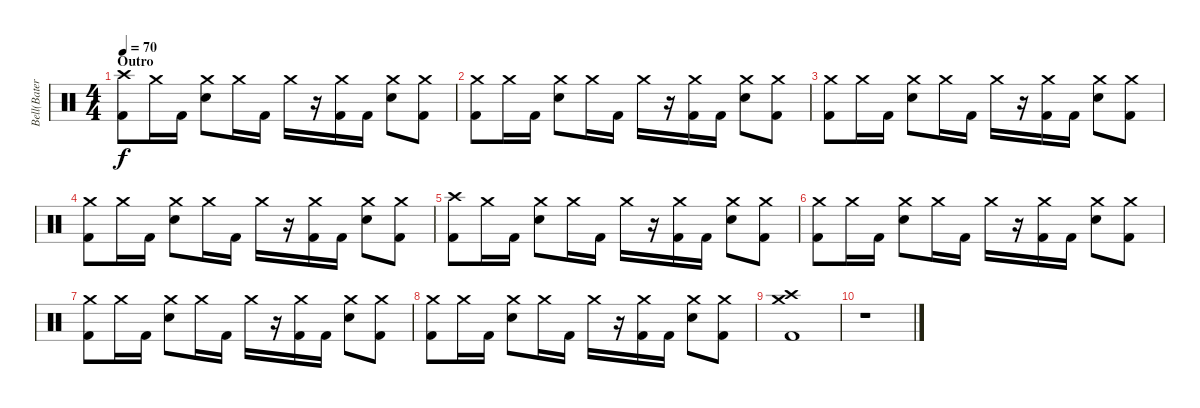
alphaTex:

\track ("Bell(Bateria)" "Bell(Bater") {instrument percussion}
\staff {score}
\articulation defaults
\ts (4 4)
\section ("" "Outro")
\tempo 70
\clef neutral
\ks c
("Crash high (hit)" "Kick (hit) 2").8{dy f} "Crash medium (hit)".16 "Kick (hit) 2".16 ("Crash medium (hit)" "Electric Snare (hit)").8 "Crash medium (hit)".16 "Kick (hit) 2".16 "Crash medium (hit)".16 r.16 ("Crash medium (hit)" "Kick (hit) 2").16 "Kick (hit) 2".16 ("Crash medium (hit)" "Electric Snare (hit)").8 ("Crash medium (hit)" "Kick (hit) 2").8 |
("Crash medium (hit)" "Kick (hit) 2").8 "Crash medium (hit)".16 "Kick (hit) 2".16 ("Crash medium (hit)" "Electric Snare (hit)").8 "Crash medium (hit)".16 "Kick (hit) 2".16 "Crash medium (hit)".16 r.16 ("Crash medium (hit)" "Kick (hit) 2").16 "Kick (hit) 2".16 ("Crash medium (hit)" "Electric Snare (hit)").8 ("Crash medium (hit)" "Kick (hit) 2").8 |
("Crash medium (hit)" "Kick (hit) 2").8 "Crash medium (hit)".16 "Kick (hit) 2".16 ("Crash medium (hit)" "Electric Snare (hit)").8 "Crash medium (hit)".16 "Kick (hit) 2".16 "Crash medium (hit)".16 r.16 ("Crash medium (hit)" "Kick (hit) 2").16 "Kick (hit) 2".16 ("Crash medium (hit)" "Electric Snare (hit)").8 ("Crash medium (hit)" "Kick (hit) 2").8 |
("Crash medium (hit)" "Kick (hit) 2").8 "Crash medium (hit)".16 "Kick (hit) 2".16 ("Crash medium (hit)" "Electric Snare (hit)").8 "Crash medium (hit)".16 "Kick (hit) 2".16 "Crash medium (hit)".16 r.16 ("Crash medium (hit)" "Kick (hit) 2").16 "Kick (hit) 2".16 ("Crash medium (hit)" "Electric Snare (hit)").8 ("Crash medium (hit)" "Kick (hit) 2").8 |
("Crash high (hit)" "Kick (hit) 2").8 "Crash medium (hit)".16 "Kick (hit) 2".16 ("Crash medium (hit)" "Electric Snare (hit)").8 "Crash medium (hit)".16 "Kick (hit) 2".16 "Crash medium (hit)".16 r.16 ("Crash medium (hit)" "Kick (hit) 2").16 "Kick (hit) 2".16 ("Crash medium (hit)" "Electric Snare (hit)").8 ("Crash medium (hit)" "Kick (hit) 2").8 |
("Crash medium (hit)" "Kick (hit) 2").8 "Crash medium (hit)".16 "Kick (hit) 2".16 ("Crash medium (hit)" "Electric Snare (hit)").8 "Crash medium (hit)".16 "Kick (hit) 2".16 "Crash medium (hit)".16 r.16 ("Crash medium (hit)" "Kick (hit) 2").16 "Kick (hit) 2".16 ("Crash medium (hit)" "Electric Snare (hit)").8 ("Crash medium (hit)" "Kick (hit) 2").8 |
("Crash medium (hit)" "Kick (hit) 2").8 "Crash medium (hit)".16 "Kick (hit) 2".16 ("Crash medium (hit)" "Electric Snare (hit)").8 "Crash medium (hit)".16 "Kick (hit) 2".16 "Crash medium (hit)".16 r.16 ("Crash medium (hit)" "Kick (hit) 2").16 "Kick (hit) 2".16 ("Crash medium (hit)" "Electric Snare (hit)").8 ("Crash medium (hit)" "Kick (hit) 2").8 |
("Crash medium (hit)" "Kick (hit) 2").8 "Crash medium (hit)".16 "Kick (hit) 2".16 ("Crash medium (hit)" "Electric Snare (hit)").8 "Crash medium (hit)".16 "Kick (hit) 2".16 "Crash medium (hit)".16 r.16 ("Crash medium (hit)" "Kick (hit) 2").16 "Kick (hit) 2".16 ("Crash medium (hit)" "Electric Snare (hit)").8 ("Crash medium (hit)" "Kick (hit) 2").8 |
("Crash high (hit)" "Crash medium (hit)" "Kick (hit) 2").1 |
r.1
